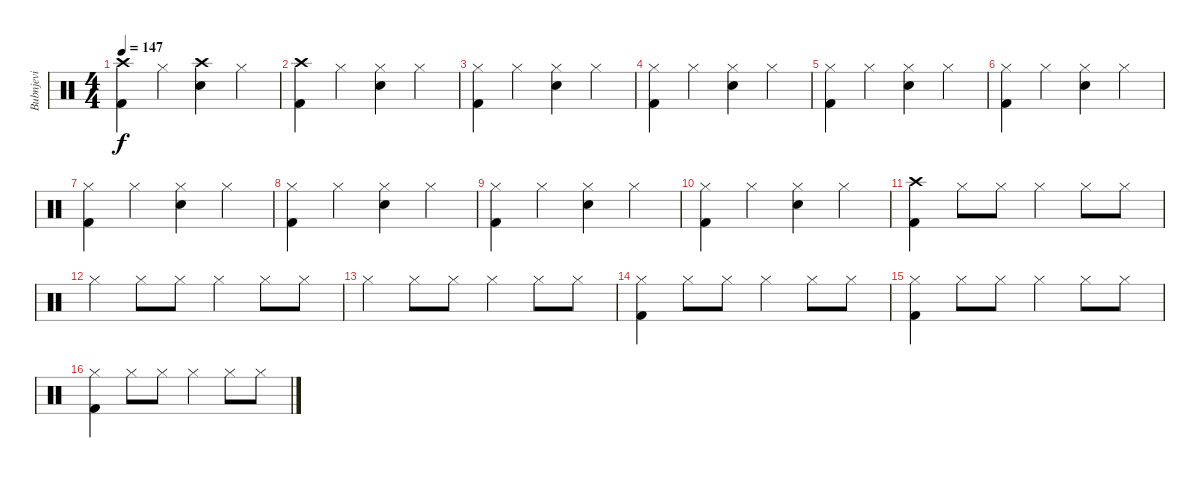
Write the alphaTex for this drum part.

\track ("Bubnjevi" "Bubnjevi") {instrument percussion}
\staff {score}
\articulation defaults
\ts (4 4)
\tempo 147
\clef neutral
\ks c
("Crash high (hit)" "Kick (hit) 2").4{dy f} "Hi-Hat (closed)".4 ("Crash high (hit)" "Electric Snare (hit)").4 "Hi-Hat (closed)".4 |
("Crash high (hit)" "Kick (hit) 2").4 "Hi-Hat (closed)".4 ("Hi-Hat (closed)" "Electric Snare (hit)").4 "Hi-Hat (closed)".4 |
("Hi-Hat (closed)" "Kick (hit) 2").4 "Hi-Hat (closed)".4 ("Hi-Hat (closed)" "Electric Snare (hit)").4 "Hi-Hat (closed)".4 |
("Hi-Hat (closed)" "Kick (hit) 2").4 "Hi-Hat (closed)".4 ("Hi-Hat (closed)" "Electric Snare (hit)").4 "Hi-Hat (closed)".4 |
("Hi-Hat (closed)" "Kick (hit) 2").4 "Hi-Hat (closed)".4 ("Hi-Hat (closed)" "Electric Snare (hit)").4 "Hi-Hat (closed)".4 |
("Hi-Hat (closed)" "Kick (hit) 2").4 "Hi-Hat (closed)".4 ("Hi-Hat (closed)" "Electric Snare (hit)").4 "Hi-Hat (closed)".4 |
("Hi-Hat (closed)" "Kick (hit) 2").4 "Hi-Hat (closed)".4 ("Hi-Hat (closed)" "Electric Snare (hit)").4 "Hi-Hat (closed)".4 |
("Hi-Hat (closed)" "Kick (hit) 2").4 "Hi-Hat (closed)".4 ("Hi-Hat (closed)" "Electric Snare (hit)").4 "Hi-Hat (closed)".4 |
("Hi-Hat (closed)" "Kick (hit) 2").4 "Hi-Hat (closed)".4 ("Hi-Hat (closed)" "Electric Snare (hit)").4 "Hi-Hat (closed)".4 |
("Hi-Hat (closed)" "Kick (hit) 2").4 "Hi-Hat (closed)".4 ("Hi-Hat (closed)" "Electric Snare (hit)").4 "Hi-Hat (closed)".4 |
("Crash high (hit)" "Kick (hit) 2").4 "Hi-Hat (closed)".8 "Hi-Hat (closed)".8 "Hi-Hat (closed)".4 "Hi-Hat (closed)".8 "Hi-Hat (closed)".8 |
"Hi-Hat (closed)".4 "Hi-Hat (closed)".8 "Hi-Hat (closed)".8 "Hi-Hat (closed)".4 "Hi-Hat (closed)".8 "Hi-Hat (closed)".8 |
"Hi-Hat (closed)".4 "Hi-Hat (closed)".8 "Hi-Hat (closed)".8 "Hi-Hat (closed)".4 "Hi-Hat (closed)".8 "Hi-Hat (closed)".8 |
("Hi-Hat (closed)" "Kick (hit) 2").4 "Hi-Hat (closed)".8 "Hi-Hat (closed)".8 "Hi-Hat (closed)".4 "Hi-Hat (closed)".8 "Hi-Hat (closed)".8 |
("Hi-Hat (closed)" "Kick (hit) 2").4 "Hi-Hat (closed)".8 "Hi-Hat (closed)".8 "Hi-Hat (closed)".4 "Hi-Hat (closed)".8 "Hi-Hat (closed)".8 |
("Hi-Hat (closed)" "Kick (hit) 2").4 "Hi-Hat (closed)".8 "Hi-Hat (closed)".8 "Hi-Hat (closed)".4 "Hi-Hat (closed)".8 "Hi-Hat (closed)".8
